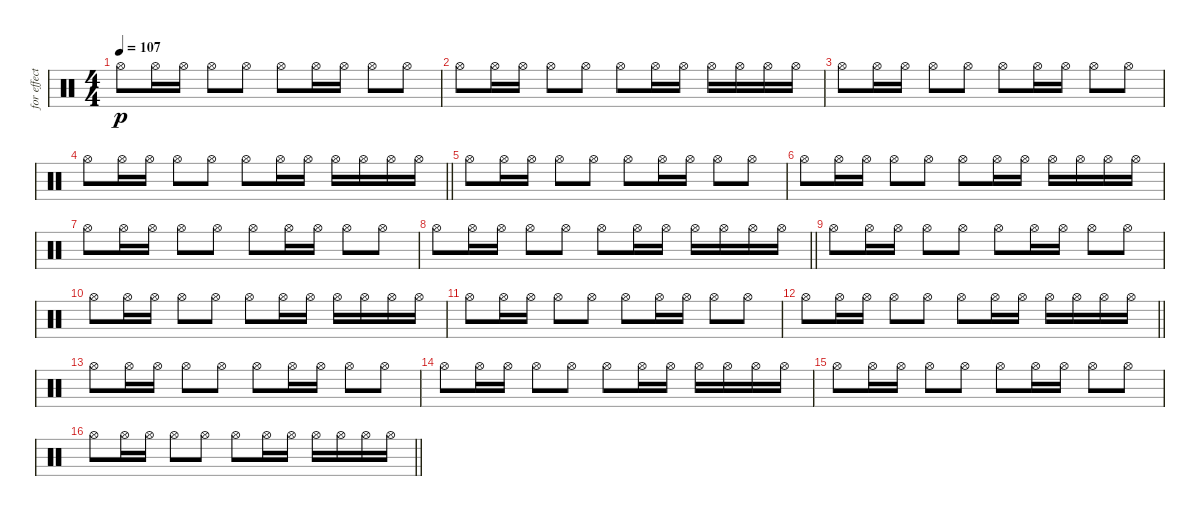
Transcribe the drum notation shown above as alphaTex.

\track ("for effect" "for effect") {instrument percussion}
\staff {score}
\articulation defaults
\ts (4 4)
\tempo 107
\clef neutral
\ks c "Hi-Hat (open)".8{dy p} "Hi-Hat (open)".16 "Hi-Hat (open)".16 "Hi-Hat (open)".8 "Hi-Hat (open)".8 "Hi-Hat (open)".8 "Hi-Hat (open)".16 "Hi-Hat (open)".16 "Hi-Hat (open)".8 "Hi-Hat (open)".8
|
"Hi-Hat (open)".8 "Hi-Hat (open)".16 "Hi-Hat (open)".16 "Hi-Hat (open)".8 "Hi-Hat (open)".8 "Hi-Hat (open)".8 "Hi-Hat (open)".16 "Hi-Hat (open)".16 "Hi-Hat (open)".16 "Hi-Hat (open)".16 "Hi-Hat (open)".16 "Hi-Hat (open)".16 |
"Hi-Hat (open)".8 "Hi-Hat (open)".16 "Hi-Hat (open)".16 "Hi-Hat (open)".8 "Hi-Hat (open)".8 "Hi-Hat (open)".8 "Hi-Hat (open)".16 "Hi-Hat (open)".16 "Hi-Hat (open)".8 "Hi-Hat (open)".8 |
\barLineRight lightlight "Hi-Hat (open)".8 "Hi-Hat (open)".16 "Hi-Hat (open)".16 "Hi-Hat (open)".8 "Hi-Hat (open)".8 "Hi-Hat (open)".8 "Hi-Hat (open)".16 "Hi-Hat (open)".16 "Hi-Hat (open)".16 "Hi-Hat (open)".16 "Hi-Hat (open)".16 "Hi-Hat (open)".16
|
"Hi-Hat (open)".8 "Hi-Hat (open)".16 "Hi-Hat (open)".16 "Hi-Hat (open)".8 "Hi-Hat (open)".8 "Hi-Hat (open)".8 "Hi-Hat (open)".16 "Hi-Hat (open)".16 "Hi-Hat (open)".8 "Hi-Hat (open)".8 |
"Hi-Hat (open)".8 "Hi-Hat (open)".16 "Hi-Hat (open)".16 "Hi-Hat (open)".8 "Hi-Hat (open)".8 "Hi-Hat (open)".8 "Hi-Hat (open)".16 "Hi-Hat (open)".16 "Hi-Hat (open)".16 "Hi-Hat (open)".16 "Hi-Hat (open)".16 "Hi-Hat (open)".16 |
"Hi-Hat (open)".8 "Hi-Hat (open)".16 "Hi-Hat (open)".16 "Hi-Hat (open)".8 "Hi-Hat (open)".8 "Hi-Hat (open)".8 "Hi-Hat (open)".16 "Hi-Hat (open)".16 "Hi-Hat (open)".8 "Hi-Hat (open)".8 |
\barLineRight lightlight "Hi-Hat (open)".8 "Hi-Hat (open)".16 "Hi-Hat (open)".16 "Hi-Hat (open)".8 "Hi-Hat (open)".8 "Hi-Hat (open)".8 "Hi-Hat (open)".16 "Hi-Hat (open)".16 "Hi-Hat (open)".16 "Hi-Hat (open)".16 "Hi-Hat (open)".16 "Hi-Hat (open)".16
|
"Hi-Hat (open)".8 "Hi-Hat (open)".16 "Hi-Hat (open)".16 "Hi-Hat (open)".8 "Hi-Hat (open)".8 "Hi-Hat (open)".8 "Hi-Hat (open)".16 "Hi-Hat (open)".16 "Hi-Hat (open)".8 "Hi-Hat (open)".8 |
"Hi-Hat (open)".8 "Hi-Hat (open)".16 "Hi-Hat (open)".16 "Hi-Hat (open)".8 "Hi-Hat (open)".8 "Hi-Hat (open)".8 "Hi-Hat (open)".16 "Hi-Hat (open)".16 "Hi-Hat (open)".16 "Hi-Hat (open)".16 "Hi-Hat (open)".16 "Hi-Hat (open)".16 |
"Hi-Hat (open)".8 "Hi-Hat (open)".16 "Hi-Hat (open)".16 "Hi-Hat (open)".8 "Hi-Hat (open)".8 "Hi-Hat (open)".8 "Hi-Hat (open)".16 "Hi-Hat (open)".16 "Hi-Hat (open)".8 "Hi-Hat (open)".8 |
\barLineRight lightlight "Hi-Hat (open)".8 "Hi-Hat (open)".16 "Hi-Hat (open)".16 "Hi-Hat (open)".8 "Hi-Hat (open)".8 "Hi-Hat (open)".8 "Hi-Hat (open)".16 "Hi-Hat (open)".16 "Hi-Hat (open)".16 "Hi-Hat (open)".16 "Hi-Hat (open)".16 "Hi-Hat (open)".16
|
"Hi-Hat (open)".8 "Hi-Hat (open)".16 "Hi-Hat (open)".16 "Hi-Hat (open)".8 "Hi-Hat (open)".8 "Hi-Hat (open)".8 "Hi-Hat (open)".16 "Hi-Hat (open)".16 "Hi-Hat (open)".8 "Hi-Hat (open)".8 |
"Hi-Hat (open)".8 "Hi-Hat (open)".16 "Hi-Hat (open)".16 "Hi-Hat (open)".8 "Hi-Hat (open)".8 "Hi-Hat (open)".8 "Hi-Hat (open)".16 "Hi-Hat (open)".16 "Hi-Hat (open)".16 "Hi-Hat (open)".16 "Hi-Hat (open)".16 "Hi-Hat (open)".16 |
"Hi-Hat (open)".8 "Hi-Hat (open)".16 "Hi-Hat (open)".16 "Hi-Hat (open)".8 "Hi-Hat (open)".8 "Hi-Hat (open)".8 "Hi-Hat (open)".16 "Hi-Hat (open)".16 "Hi-Hat (open)".8 "Hi-Hat (open)".8 |
\barLineRight lightlight "Hi-Hat (open)".8 "Hi-Hat (open)".16 "Hi-Hat (open)".16 "Hi-Hat (open)".8 "Hi-Hat (open)".8 "Hi-Hat (open)".8 "Hi-Hat (open)".16 "Hi-Hat (open)".16 "Hi-Hat (open)".16 "Hi-Hat (open)".16 "Hi-Hat (open)".16 "Hi-Hat (open)".16
